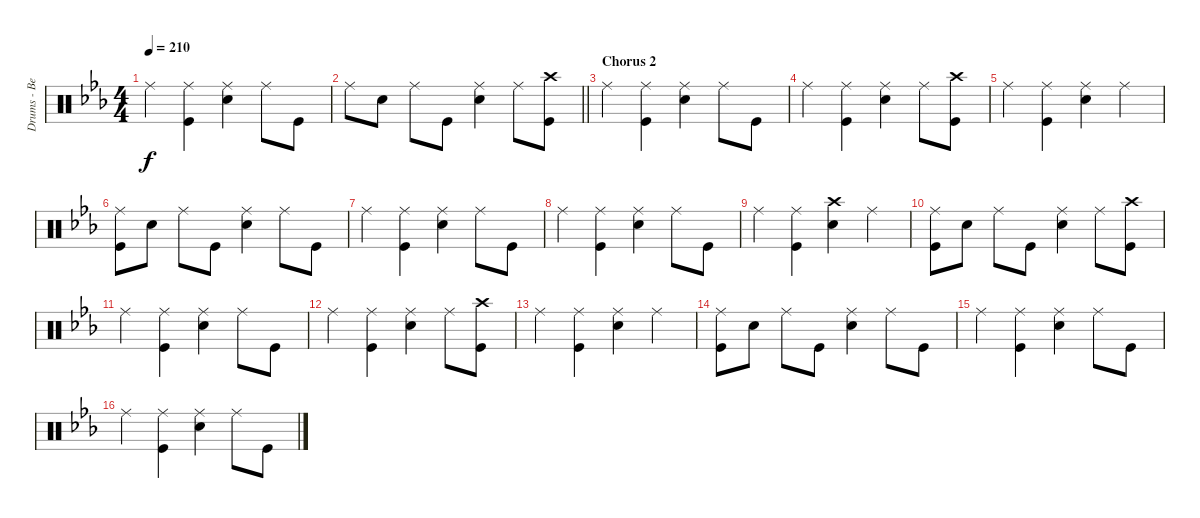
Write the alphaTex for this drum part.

\track ("Drums - Ben Johnston" "Drums - Be") {instrument percussion}
\staff {score}
\articulation defaults
\ts (4 4)
\tempo 210
\clef neutral
\ks cminor "Ride (middle)".4{dy f}
("Ride (middle)" "Kick (hit)").4 ("Ride (middle)" "Snare (hit) 2").4 "Ride (middle)".8 "Kick (hit)".8 |
\barLineRight lightlight "Ride (middle)".8 "Snare (hit) 2".8 "Ride (middle)".8 "Kick (hit)".8
("Ride (middle)" "Snare (hit) 2").4 "Ride (middle)".8 ("Crash high (hit)" "Kick (hit)").8 |
\section ("" "Chorus 2")
"Ride (middle)".4 ("Ride (middle)" "Kick (hit)").4 ("Ride (middle)" "Snare (hit) 2").4 "Ride (middle)".8 "Kick (hit)".8 |
"Ride (middle)".4 ("Ride (middle)" "Kick (hit)").4 ("Ride (middle)" "Snare (hit) 2").4 "Ride (middle)".8 ("Crash high (hit)" "Kick (hit)").8 |
"Ride (middle)".4 ("Ride (middle)" "Kick (hit)").4 ("Ride (middle)" "Snare (hit) 2").4 "Ride (middle)".4 |
("Ride (middle)" "Kick (hit)").8 "Snare (hit) 2".8 "Ride (middle)".8 "Kick (hit)".8 ("Ride (middle)" "Snare (hit) 2").4 "Ride (middle)".8 "Kick (hit)".8 |
"Ride (middle)".4 ("Ride (middle)" "Kick (hit)").4 ("Ride (middle)" "Snare (hit) 2").4 "Ride (middle)".8 "Kick (hit)".8 |
"Ride (middle)".4 ("Ride (middle)" "Kick (hit)").4 ("Ride (middle)" "Snare (hit) 2").4 "Ride (middle)".8 "Kick (hit)".8 |
"Ride (middle)".4 ("Ride (middle)" "Kick (hit)").4 ("Crash high (hit)" "Snare (hit) 2").4 "Ride (middle)".4 |
("Ride (middle)" "Kick (hit)").8 "Snare (hit) 2".8 "Ride (middle)".8 "Kick (hit)".8 ("Ride (middle)" "Snare (hit) 2").4 "Ride (middle)".8 ("Crash high (hit)" "Kick (hit)").8 |
"Ride (middle)".4 ("Ride (middle)" "Kick (hit)").4 ("Ride (middle)" "Snare (hit) 2").4 "Ride (middle)".8 "Kick (hit)".8 |
"Ride (middle)".4 ("Ride (middle)" "Kick (hit)").4 ("Ride (middle)" "Snare (hit) 2").4 "Ride (middle)".8 ("Crash high (hit)" "Kick (hit)").8 |
"Ride (middle)".4 ("Ride (middle)" "Kick (hit)").4 ("Ride (middle)" "Snare (hit) 2").4 "Ride (middle)".4 |
("Ride (middle)" "Kick (hit)").8 "Snare (hit) 2".8 "Ride (middle)".8 "Kick (hit)".8 ("Ride (middle)" "Snare (hit) 2").4 "Ride (middle)".8 "Kick (hit)".8 |
"Ride (middle)".4 ("Ride (middle)" "Kick (hit)").4 ("Ride (middle)" "Snare (hit) 2").4 "Ride (middle)".8 "Kick (hit)".8 |
"Ride (middle)".4 ("Ride (middle)" "Kick (hit)").4 ("Ride (middle)" "Snare (hit) 2").4 "Ride (middle)".8 "Kick (hit)".8
